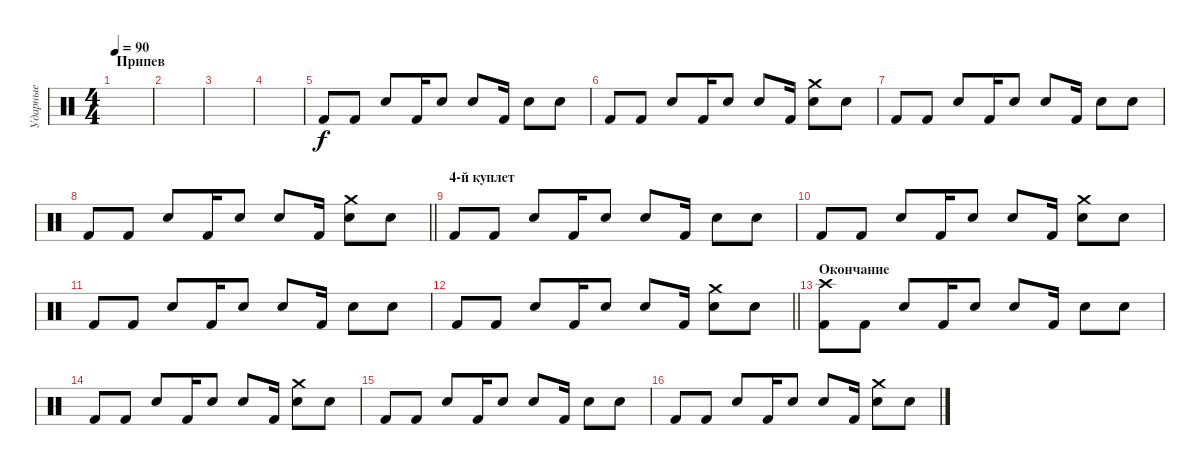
\track ("Ударные" "Ударные") {instrument percussion}
\staff {score}
\articulation defaults
\ts (4 4)
\section ("" "Припев")
\tempo 90
\clef neutral
\ks c
|
|
|
|
"Kick (hit) 2".8 "Kick (hit) 2".8 "Snare (hit) 2".8 "Kick (hit) 2".16 "Snare (hit) 2".8 "Snare (hit) 2".8 "Kick (hit) 2".16 "Snare (hit) 2".8 "Snare (hit)".8 |
"Kick (hit) 2".8 "Kick (hit) 2".8 "Snare (hit) 2".8 "Kick (hit) 2".16 "Snare (hit) 2".8 "Snare (hit) 2".8 "Kick (hit) 2".16 ("Crash medium (hit)" "Snare (hit) 2").8 "Snare (hit)".8 |
"Kick (hit) 2".8 "Kick (hit) 2".8 "Snare (hit) 2".8 "Kick (hit) 2".16 "Snare (hit) 2".8 "Snare (hit) 2".8 "Kick (hit) 2".16 "Snare (hit) 2".8 "Snare (hit)".8 |
\barLineRight lightlight "Kick (hit) 2".8 "Kick (hit) 2".8 "Snare (hit) 2".8 "Kick (hit) 2".16 "Snare (hit) 2".8 "Snare (hit) 2".8 "Kick (hit) 2".16
("Crash medium (hit)" "Snare (hit) 2").8 "Snare (hit)".8 |
\section ("" "4-й куплет")
"Kick (hit) 2".8 "Kick (hit) 2".8 "Snare (hit) 2".8 "Kick (hit) 2".16 "Snare (hit) 2".8 "Snare (hit) 2".8 "Kick (hit) 2".16 "Snare (hit) 2".8 "Snare (hit)".8 |
"Kick (hit) 2".8 "Kick (hit) 2".8 "Snare (hit) 2".8 "Kick (hit) 2".16 "Snare (hit) 2".8 "Snare (hit) 2".8 "Kick (hit) 2".16 ("Crash medium (hit)" "Snare (hit) 2").8 "Snare (hit)".8 |
"Kick (hit) 2".8 "Kick (hit) 2".8 "Snare (hit) 2".8 "Kick (hit) 2".16 "Snare (hit) 2".8 "Snare (hit) 2".8 "Kick (hit) 2".16 "Snare (hit) 2".8 "Snare (hit)".8 |
\barLineRight lightlight "Kick (hit) 2".8 "Kick (hit) 2".8 "Snare (hit) 2".8 "Kick (hit) 2".16 "Snare (hit) 2".8 "Snare (hit) 2".8 "Kick (hit) 2".16
("Crash medium (hit)" "Snare (hit) 2").8 "Snare (hit)".8 |
\section ("" "Окончание")
("Crash high (hit)" "Kick (hit) 2").8 "Kick (hit) 2".8 "Snare (hit) 2".8 "Kick (hit) 2".16 "Snare (hit) 2".8 "Snare (hit) 2".8 "Kick (hit) 2".16 "Snare (hit) 2".8 "Snare (hit)".8 |
"Kick (hit) 2".8 "Kick (hit) 2".8 "Snare (hit) 2".8 "Kick (hit) 2".16 "Snare (hit) 2".8 "Snare (hit) 2".8 "Kick (hit) 2".16 ("Crash medium (hit)" "Snare (hit) 2").8 "Snare (hit)".8 |
"Kick (hit) 2".8 "Kick (hit) 2".8 "Snare (hit) 2".8 "Kick (hit) 2".16 "Snare (hit) 2".8 "Snare (hit) 2".8 "Kick (hit) 2".16 "Snare (hit) 2".8 "Snare (hit)".8 |
"Kick (hit) 2".8 "Kick (hit) 2".8 "Snare (hit) 2".8 "Kick (hit) 2".16 "Snare (hit) 2".8 "Snare (hit) 2".8 "Kick (hit) 2".16 ("Crash medium (hit)" "Snare (hit) 2").8 "Snare (hit)".8
